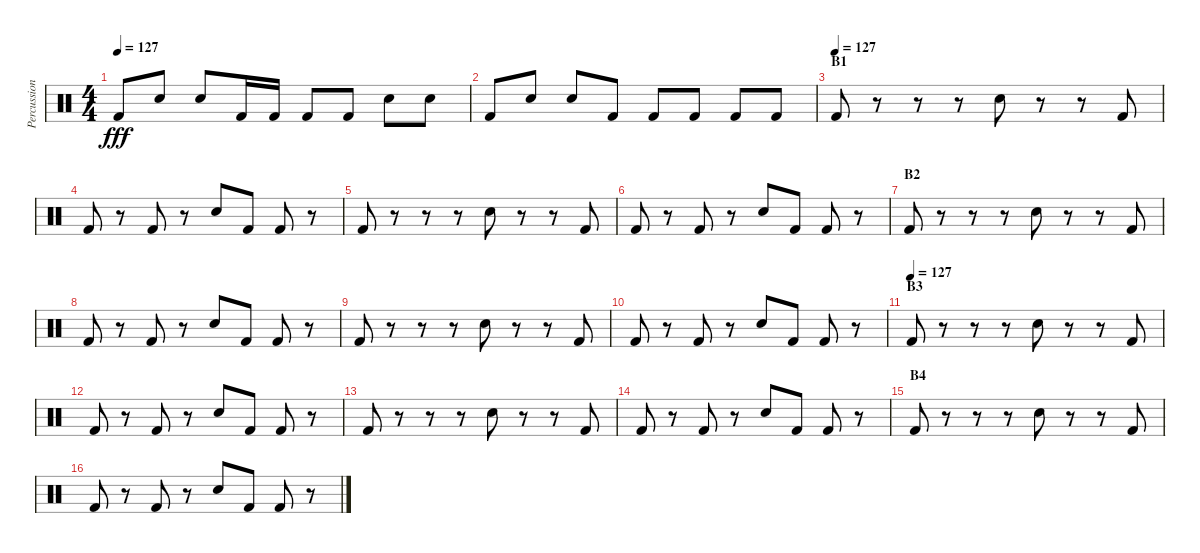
\track ("Percussion" "Percussion") {instrument percussion}
\staff {score}
\articulation defaults
\ts (4 4)
\tempo 127
\clef neutral
\ks c "Kick (hit) 2".8{dy fff} "Electric Snare (hit)".8 "Electric Snare (hit)".8 "Kick (hit) 2".16 "Kick (hit) 2".16 "Kick (hit) 2".8 "Kick (hit) 2".8 "Electric Snare (hit)".8 "Electric Snare (hit)".8
|
"Kick (hit) 2".8 "Electric Snare (hit)".8 "Electric Snare (hit)".8 "Kick (hit) 2".8 "Kick (hit) 2".8 "Kick (hit) 2".8 "Kick (hit) 2".8 "Kick (hit) 2".8 |
\section ("" "B1")
\tempo (127)
"Kick (hit) 2".8 r.8 r.8 r.8 "Electric Snare (hit)".8 r.8 r.8 "Kick (hit) 2".8 |
"Kick (hit) 2".8 r.8 "Kick (hit) 2".8 r.8 "Electric Snare (hit)".8 "Kick (hit) 2".8 "Kick (hit) 2".8 r.8 |
"Kick (hit) 2".8 r.8 r.8 r.8 "Electric Snare (hit)".8 r.8 r.8 "Kick (hit) 2".8 |
"Kick (hit) 2".8 r.8 "Kick (hit) 2".8 r.8 "Electric Snare (hit)".8 "Kick (hit) 2".8 "Kick (hit) 2".8 r.8 |
\section ("" "B2")
"Kick (hit) 2".8 r.8 r.8 r.8 "Electric Snare (hit)".8 r.8 r.8 "Kick (hit) 2".8 |
"Kick (hit) 2".8 r.8 "Kick (hit) 2".8 r.8 "Electric Snare (hit)".8 "Kick (hit) 2".8 "Kick (hit) 2".8 r.8 |
"Kick (hit) 2".8 r.8 r.8 r.8 "Electric Snare (hit)".8 r.8 r.8 "Kick (hit) 2".8 |
"Kick (hit) 2".8 r.8 "Kick (hit) 2".8 r.8 "Electric Snare (hit)".8 "Kick (hit) 2".8 "Kick (hit) 2".8 r.8 |
\section ("" "B3")
\tempo (127)
"Kick (hit) 2".8 r.8 r.8 r.8 "Electric Snare (hit)".8 r.8 r.8 "Kick (hit) 2".8 |
"Kick (hit) 2".8 r.8 "Kick (hit) 2".8 r.8 "Electric Snare (hit)".8 "Kick (hit) 2".8 "Kick (hit) 2".8 r.8 |
"Kick (hit) 2".8 r.8 r.8 r.8 "Electric Snare (hit)".8 r.8 r.8 "Kick (hit) 2".8 |
"Kick (hit) 2".8 r.8 "Kick (hit) 2".8 r.8 "Electric Snare (hit)".8 "Kick (hit) 2".8 "Kick (hit) 2".8 r.8 |
\section ("" "B4")
"Kick (hit) 2".8 r.8 r.8 r.8 "Electric Snare (hit)".8 r.8 r.8 "Kick (hit) 2".8 |
"Kick (hit) 2".8 r.8 "Kick (hit) 2".8 r.8 "Electric Snare (hit)".8 "Kick (hit) 2".8 "Kick (hit) 2".8 r.8
